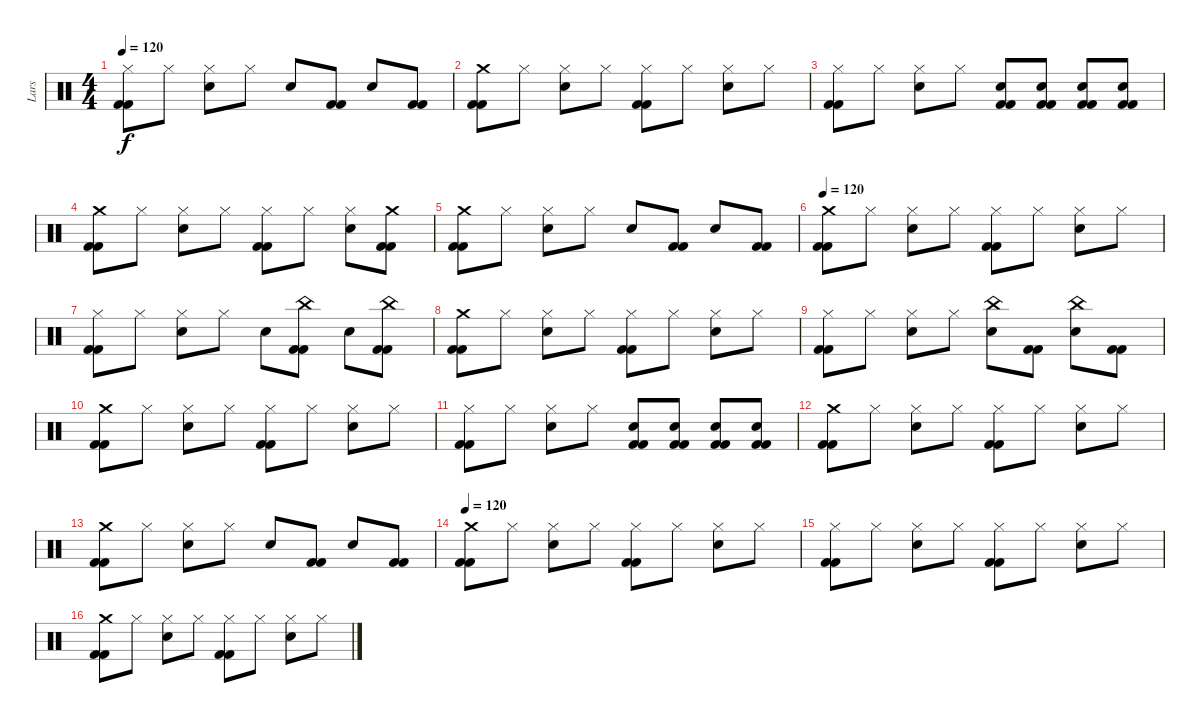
\track ("Lars" "Lars") {instrument percussion}
\staff {score}
\articulation defaults
\ts (4 4)
\tempo 120
\clef neutral
\ks c
("Kick (hit) 2" "Kick (hit) 2" "Hi-Hat (closed)").8{dy f} "Hi-Hat (closed)".8 ("Hi-Hat (closed)" "Electric Snare (hit)").8 "Hi-Hat (closed)".8 "Electric Snare (hit)".8 ("Kick (hit) 2" "Kick (hit) 2").8 "Electric Snare (hit)".8 ("Kick (hit) 2" "Kick (hit) 2").8 |
("Kick (hit) 2" "Kick (hit) 2" "Crash medium (hit)").8 "Hi-Hat (closed)".8 ("Hi-Hat (closed)" "Electric Snare (hit)").8 "Hi-Hat (closed)".8 ("Hi-Hat (closed)" "Kick (hit) 2" "Kick (hit) 2").8 "Hi-Hat (closed)".8 ("Electric Snare (hit)" "Hi-Hat (closed)").8 "Hi-Hat (closed)".8 |
("Kick (hit) 2" "Kick (hit) 2" "Hi-Hat (closed)").8 "Hi-Hat (closed)".8 ("Hi-Hat (closed)" "Electric Snare (hit)").8 "Hi-Hat (closed)".8 ("Electric Snare (hit)" "Kick (hit) 2" "Kick (hit) 2").8 ("Electric Snare (hit)" "Kick (hit) 2" "Kick (hit) 2").8 ("Kick (hit) 2" "Kick (hit) 2" "Electric Snare (hit)").8 ("Electric Snare (hit)" "Kick (hit) 2" "Kick (hit) 2").8 |
("Kick (hit) 2" "Kick (hit) 2" "Crash medium (hit)").8 "Hi-Hat (closed)".8 ("Hi-Hat (closed)" "Electric Snare (hit)").8 "Hi-Hat (closed)".8 ("Hi-Hat (closed)" "Kick (hit) 2" "Kick (hit) 2").8 "Hi-Hat (closed)".8 ("Electric Snare (hit)" "Hi-Hat (closed)").8 ("Kick (hit) 2" "Kick (hit) 2" "Crash medium (hit)").8 |
("Kick (hit) 2" "Kick (hit) 2" "Crash medium (hit)").8 "Hi-Hat (closed)".8 ("Hi-Hat (closed)" "Electric Snare (hit)").8 "Hi-Hat (closed)".8 "Electric Snare (hit)".8 ("Kick (hit) 2" "Kick (hit) 2").8 "Electric Snare (hit)".8 ("Kick (hit) 2" "Kick (hit) 2").8 |
\tempo 120
("Kick (hit) 2" "Kick (hit) 2" "Crash medium (hit)").8 "Hi-Hat (closed)".8 ("Hi-Hat (closed)" "Electric Snare (hit)").8 "Hi-Hat (closed)".8 ("Hi-Hat (closed)" "Kick (hit) 2" "Kick (hit) 2").8 "Hi-Hat (closed)".8 ("Electric Snare (hit)" "Hi-Hat (closed)").8 "Hi-Hat (closed)".8 |
("Kick (hit) 2" "Kick (hit) 2" "Hi-Hat (closed)").8 "Hi-Hat (closed)".8 ("Hi-Hat (closed)" "Electric Snare (hit)").8 "Hi-Hat (closed)".8 "Electric Snare (hit)".8 ("Kick (hit) 2" "China (hit)" "Kick (hit) 2").8 "Electric Snare (hit)".8 ("Kick (hit) 2" "Kick (hit) 2" "China (hit)").8 |
("Kick (hit) 2" "Kick (hit) 2" "Crash medium (hit)").8 "Hi-Hat (closed)".8 ("Hi-Hat (closed)" "Electric Snare (hit)").8 "Hi-Hat (closed)".8 ("Hi-Hat (closed)" "Kick (hit) 2" "Kick (hit) 2").8 "Hi-Hat (closed)".8 ("Electric Snare (hit)" "Hi-Hat (closed)").8 "Hi-Hat (closed)".8 |
("Kick (hit) 2" "Kick (hit) 2" "Hi-Hat (closed)").8 "Hi-Hat (closed)".8 ("Hi-Hat (closed)" "Electric Snare (hit)").8 "Hi-Hat (closed)".8 ("Electric Snare (hit)" "China (hit)").8 ("Kick (hit) 2" "Kick (hit) 2").8 ("Electric Snare (hit)" "China (hit)").8 ("Kick (hit) 2" "Kick (hit) 2").8 |
("Kick (hit) 2" "Kick (hit) 2" "Crash medium (hit)").8 "Hi-Hat (closed)".8 ("Hi-Hat (closed)" "Electric Snare (hit)").8 "Hi-Hat (closed)".8 ("Hi-Hat (closed)" "Kick (hit) 2" "Kick (hit) 2").8 "Hi-Hat (closed)".8 ("Electric Snare (hit)" "Hi-Hat (closed)").8 "Hi-Hat (closed)".8 |
("Kick (hit) 2" "Kick (hit) 2" "Hi-Hat (closed)").8 "Hi-Hat (closed)".8 ("Hi-Hat (closed)" "Electric Snare (hit)").8 "Hi-Hat (closed)".8 ("Electric Snare (hit)" "Kick (hit) 2" "Kick (hit) 2").8 ("Electric Snare (hit)" "Kick (hit) 2" "Kick (hit) 2").8 ("Kick (hit) 2" "Kick (hit) 2" "Electric Snare (hit)").8 ("Electric Snare (hit)" "Kick (hit) 2" "Kick (hit) 2").8 |
("Kick (hit) 2" "Kick (hit) 2" "Crash medium (hit)").8 "Hi-Hat (closed)".8 ("Hi-Hat (closed)" "Electric Snare (hit)").8 "Hi-Hat (closed)".8 ("Hi-Hat (closed)" "Kick (hit) 2" "Kick (hit) 2").8 "Hi-Hat (closed)".8 ("Electric Snare (hit)" "Hi-Hat (closed)").8 "Hi-Hat (closed)".8 |
("Kick (hit) 2" "Kick (hit) 2" "Crash medium (hit)").8 "Hi-Hat (closed)".8 ("Hi-Hat (closed)" "Electric Snare (hit)").8 "Hi-Hat (closed)".8 "Electric Snare (hit)".8 ("Kick (hit) 2" "Kick (hit) 2").8 "Electric Snare (hit)".8 ("Kick (hit) 2" "Kick (hit) 2").8 |
\tempo 120
("Kick (hit) 2" "Kick (hit) 2" "Crash medium (hit)").8 "Hi-Hat (closed)".8 ("Hi-Hat (closed)" "Electric Snare (hit)").8 "Hi-Hat (closed)".8 ("Hi-Hat (closed)" "Kick (hit) 2" "Kick (hit) 2").8 "Hi-Hat (closed)".8 ("Electric Snare (hit)" "Hi-Hat (closed)").8 "Hi-Hat (closed)".8 |
("Kick (hit) 2" "Kick (hit) 2" "Hi-Hat (closed)").8 "Hi-Hat (closed)".8 ("Hi-Hat (closed)" "Electric Snare (hit)").8 "Hi-Hat (closed)".8 ("Hi-Hat (closed)" "Kick (hit) 2" "Kick (hit) 2").8 "Hi-Hat (closed)".8 ("Electric Snare (hit)" "Hi-Hat (closed)").8 "Hi-Hat (closed)".8 |
("Kick (hit) 2" "Kick (hit) 2" "Crash medium (hit)").8 "Hi-Hat (closed)".8 ("Hi-Hat (closed)" "Electric Snare (hit)").8 "Hi-Hat (closed)".8 ("Hi-Hat (closed)" "Kick (hit) 2" "Kick (hit) 2").8 "Hi-Hat (closed)".8 ("Electric Snare (hit)" "Hi-Hat (closed)").8 "Hi-Hat (closed)".8
